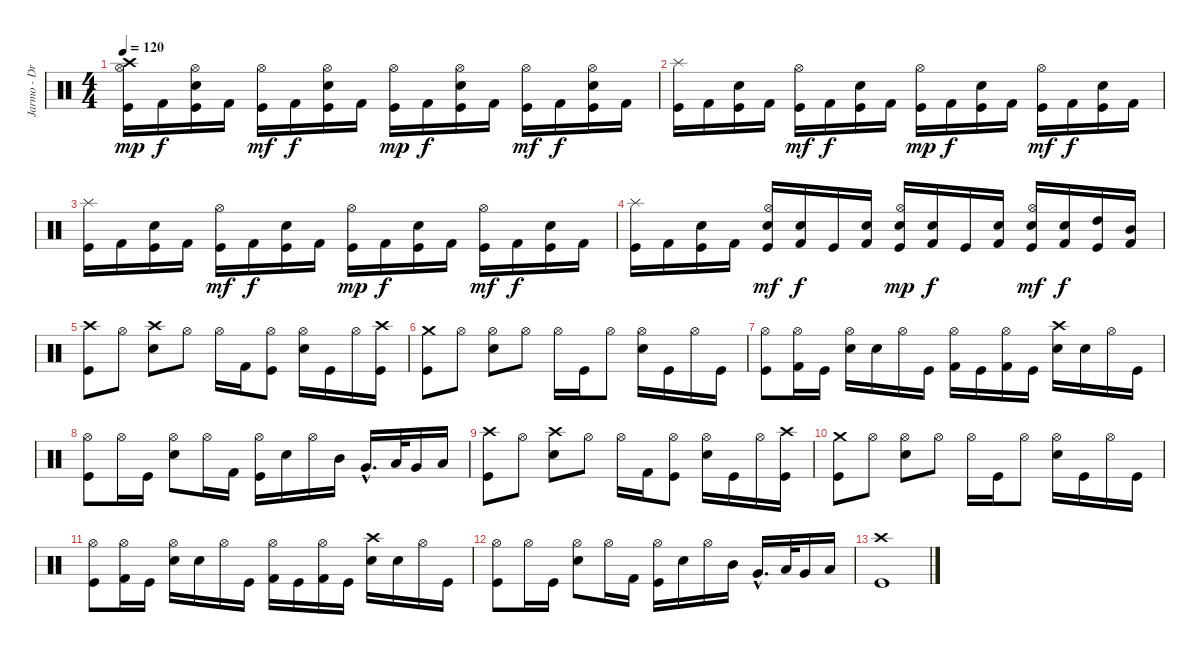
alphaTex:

\track ("Jarmo - Drums" "Jarmo - Dr") {instrument percussion}
\staff {score}
\articulation defaults
\ts (4 4)
\tempo 120
\clef neutral
\ks c
("Kick (hit)" "Hi-Hat (open)" "Crash high (hit)").16{dy mp} "Kick (hit) 2".16{dy f} ("Kick (hit)" "Electric Snare (hit)" "Hi-Hat (open)").16 "Kick (hit) 2".16 ("Kick (hit)" "Hi-Hat (open)").16{dy mf} "Kick (hit) 2".16{dy f} ("Kick (hit)" "Electric Snare (hit)" "Hi-Hat (open)").16 "Kick (hit) 2".16 ("Kick (hit)" "Hi-Hat (open)").16{dy mp} "Kick (hit) 2".16{dy f} ("Kick (hit)" "Electric Snare (hit)" "Hi-Hat (open)").16 "Kick (hit) 2".16 ("Kick (hit)" "Hi-Hat (open)").16{dy mf} "Kick (hit) 2".16{dy f} ("Kick (hit)" "Electric Snare (hit)" "Hi-Hat (open)").16 "Kick (hit) 2".16 |
("Kick (hit)" "Splash (hit)").16 "Kick (hit) 2".16 ("Kick (hit)" "Electric Snare (hit)").16 "Kick (hit) 2".16 ("Kick (hit)" "Hi-Hat (open)").16{dy mf} "Kick (hit) 2".16{dy f} ("Kick (hit)" "Electric Snare (hit)").16 "Kick (hit) 2".16 ("Kick (hit)" "Hi-Hat (open)").16{dy mp} "Kick (hit) 2".16{dy f} ("Kick (hit)" "Electric Snare (hit)").16 "Kick (hit) 2".16 ("Kick (hit)" "Hi-Hat (open)").16{dy mf} "Kick (hit) 2".16{dy f} ("Kick (hit)" "Electric Snare (hit)").16 "Kick (hit) 2".16 |
("Kick (hit)" "Splash (hit)").16 "Kick (hit) 2".16 ("Kick (hit)" "Electric Snare (hit)").16 "Kick (hit) 2".16 ("Kick (hit)" "Hi-Hat (open)").16{dy mf} "Kick (hit) 2".16{dy f} ("Kick (hit)" "Electric Snare (hit)").16 "Kick (hit) 2".16 ("Kick (hit)" "Hi-Hat (open)").16{dy mp} "Kick (hit) 2".16{dy f} ("Kick (hit)" "Electric Snare (hit)").16 "Kick (hit) 2".16 ("Kick (hit)" "Hi-Hat (open)").16{dy mf} "Kick (hit) 2".16{dy f} ("Kick (hit)" "Electric Snare (hit)").16 "Kick (hit) 2".16 |
("Kick (hit)" "Splash (hit)").16 "Kick (hit) 2".16 ("Kick (hit)" "Electric Snare (hit)").16 "Kick (hit) 2".16 ("Kick (hit)" "Electric Snare (hit)" "Hi-Hat (open)").16{dy mf} ("Kick (hit) 2" "Electric Snare (hit)").16{dy f} "Kick (hit)".16 ("Kick (hit) 2" "Electric Snare (hit)").16 ("Kick (hit)" "Electric Snare (hit)" "Hi-Hat (open)").16{dy mp} ("Kick (hit) 2" "Electric Snare (hit)").16{dy f} "Kick (hit)".16 ("Kick (hit) 2" "Electric Snare (hit)").16 ("Kick (hit)" "Electric Snare (hit)" "Hi-Hat (open)").16{dy mf} ("Kick (hit) 2" "Electric Snare (hit)").16{dy f} ("Kick (hit)" "High Tom (hit)").16 ("Kick (hit) 2" "Mid Tom (hit)").16 |
("Kick (hit)" "Crash high (hit)").8 "Hi-Hat (open)".8 ("Electric Snare (hit)" "Crash high (hit)").8 "Hi-Hat (open)".8 "Hi-Hat (open)".16 "Kick (hit) 2".16 ("Kick (hit)" "Hi-Hat (open)").8 ("Electric Snare (hit)" "Hi-Hat (open)").16 "Kick (hit)".16 "Hi-Hat (open)".16 ("Kick (hit)" "Crash high (hit)").16 |
("Kick (hit)" "Crash medium (hit)").8 "Hi-Hat (open)".8 ("Electric Snare (hit)" "Hi-Hat (open)").8 "Hi-Hat (open)".8 "Hi-Hat (open)".16 "Kick (hit)".16 "Hi-Hat (open)".8 ("Electric Snare (hit)" "Hi-Hat (open)").16 "Kick (hit)".16 "Hi-Hat (open)".16 "Kick (hit)".16 |
("Kick (hit)" "Hi-Hat (open)").8 ("Kick (hit) 2" "Hi-Hat (open)").16 "Kick (hit)".16 ("Electric Snare (hit)" "Hi-Hat (open)").16 "Electric Snare (hit)".16 "Hi-Hat (open)".16 "Kick (hit)".16 ("Kick (hit) 2" "Hi-Hat (open)").16 "Kick (hit)".16 ("Kick (hit) 2" "Hi-Hat (open)").16 "Kick (hit)".16 ("Electric Snare (hit)" "Crash high (hit)").16 "Electric Snare (hit)".16 "Hi-Hat (open)".16 "Kick (hit)".16 |
("Kick (hit)" "Hi-Hat (open)").8 "Hi-Hat (open)".16 "Kick (hit)".16 ("Electric Snare (hit)" "Hi-Hat (open)").8 "Hi-Hat (open)".16 "Kick (hit) 2".16 ("Kick (hit)" "Hi-Hat (open)").16 "Electric Snare (hit)".16 "Hi-Hat (open)".16 "Mid Tom (hit)".16 "Very Low Tom (hit)"{hac}.16{d} "Low Tom (hit)".32 "Very Low Tom (hit)".16 "Low Floor Tom (hit)".16 |
("Kick (hit)" "Crash high (hit)").8 "Hi-Hat (open)".8 ("Electric Snare (hit)" "Crash high (hit)").8 "Hi-Hat (open)".8 "Hi-Hat (open)".16 "Kick (hit) 2".16 ("Kick (hit)" "Hi-Hat (open)").8 ("Electric Snare (hit)" "Hi-Hat (open)").16 "Kick (hit)".16 "Hi-Hat (open)".16 ("Kick (hit)" "Crash high (hit)").16 |
("Kick (hit)" "Crash medium (hit)").8 "Hi-Hat (open)".8 ("Electric Snare (hit)" "Hi-Hat (open)").8 "Hi-Hat (open)".8 "Hi-Hat (open)".16 "Kick (hit)".16 "Hi-Hat (open)".8 ("Electric Snare (hit)" "Hi-Hat (open)").16 "Kick (hit)".16 "Hi-Hat (open)".16 "Kick (hit)".16 |
("Kick (hit)" "Hi-Hat (open)").8 ("Kick (hit) 2" "Hi-Hat (open)").16 "Kick (hit)".16 ("Electric Snare (hit)" "Hi-Hat (open)").16 "Electric Snare (hit)".16 "Hi-Hat (open)".16 "Kick (hit)".16 ("Kick (hit) 2" "Hi-Hat (open)").16 "Kick (hit)".16 ("Kick (hit) 2" "Hi-Hat (open)").16 "Kick (hit)".16 ("Electric Snare (hit)" "Crash high (hit)").16 "Electric Snare (hit)".16 "Hi-Hat (open)".16 "Kick (hit)".16 |
("Kick (hit)" "Hi-Hat (open)").8 "Hi-Hat (open)".16 "Kick (hit)".16 ("Electric Snare (hit)" "Hi-Hat (open)").8 "Hi-Hat (open)".16 "Kick (hit) 2".16 ("Kick (hit)" "Hi-Hat (open)").16 "Electric Snare (hit)".16 "Hi-Hat (open)".16 "Mid Tom (hit)".16 "Very Low Tom (hit)"{hac}.16{d} "Low Tom (hit)".32 "Very Low Tom (hit)".16 "Low Floor Tom (hit)".16 |
("Crash high (hit)" "Kick (hit)").1
